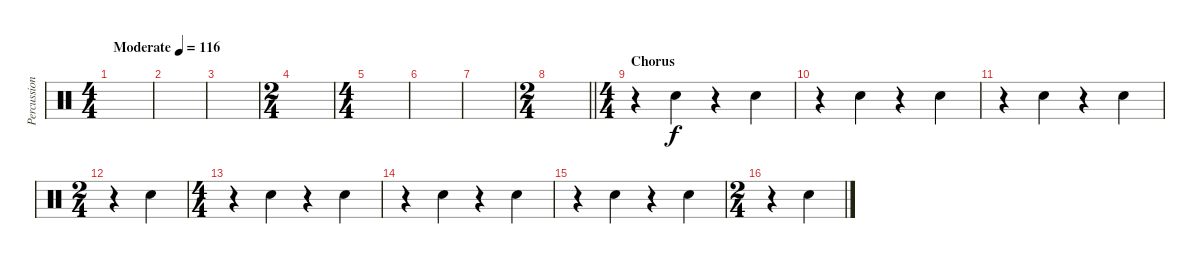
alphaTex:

\track ("Percussion" "Percussion") {instrument percussion}
\staff {score}
\articulation defaults
\ts (4 4)
\tempo (116 "Moderate")
\clef neutral
\ks c
|
|
|
\ts (2 4)
|
\ts (4 4)
|
|
|
\ts (2 4)
\barLineRight lightlight
|
\ts (4 4)
\section ("" "Chorus")
r.4 "Hand Clap (hit)".4 r.4 "Hand Clap (hit)".4 |
r.4 "Hand Clap (hit)".4 r.4 "Hand Clap (hit)".4 |
r.4 "Hand Clap (hit)".4 r.4 "Hand Clap (hit)".4 |
\ts (2 4)
r.4 "Hand Clap (hit)".4 |
\ts (4 4)
r.4 "Hand Clap (hit)".4 r.4 "Hand Clap (hit)".4 |
r.4 "Hand Clap (hit)".4 r.4 "Hand Clap (hit)".4 |
r.4 "Hand Clap (hit)".4 r.4 "Hand Clap (hit)".4 |
\ts (2 4)
r.4 "Hand Clap (hit)".4
